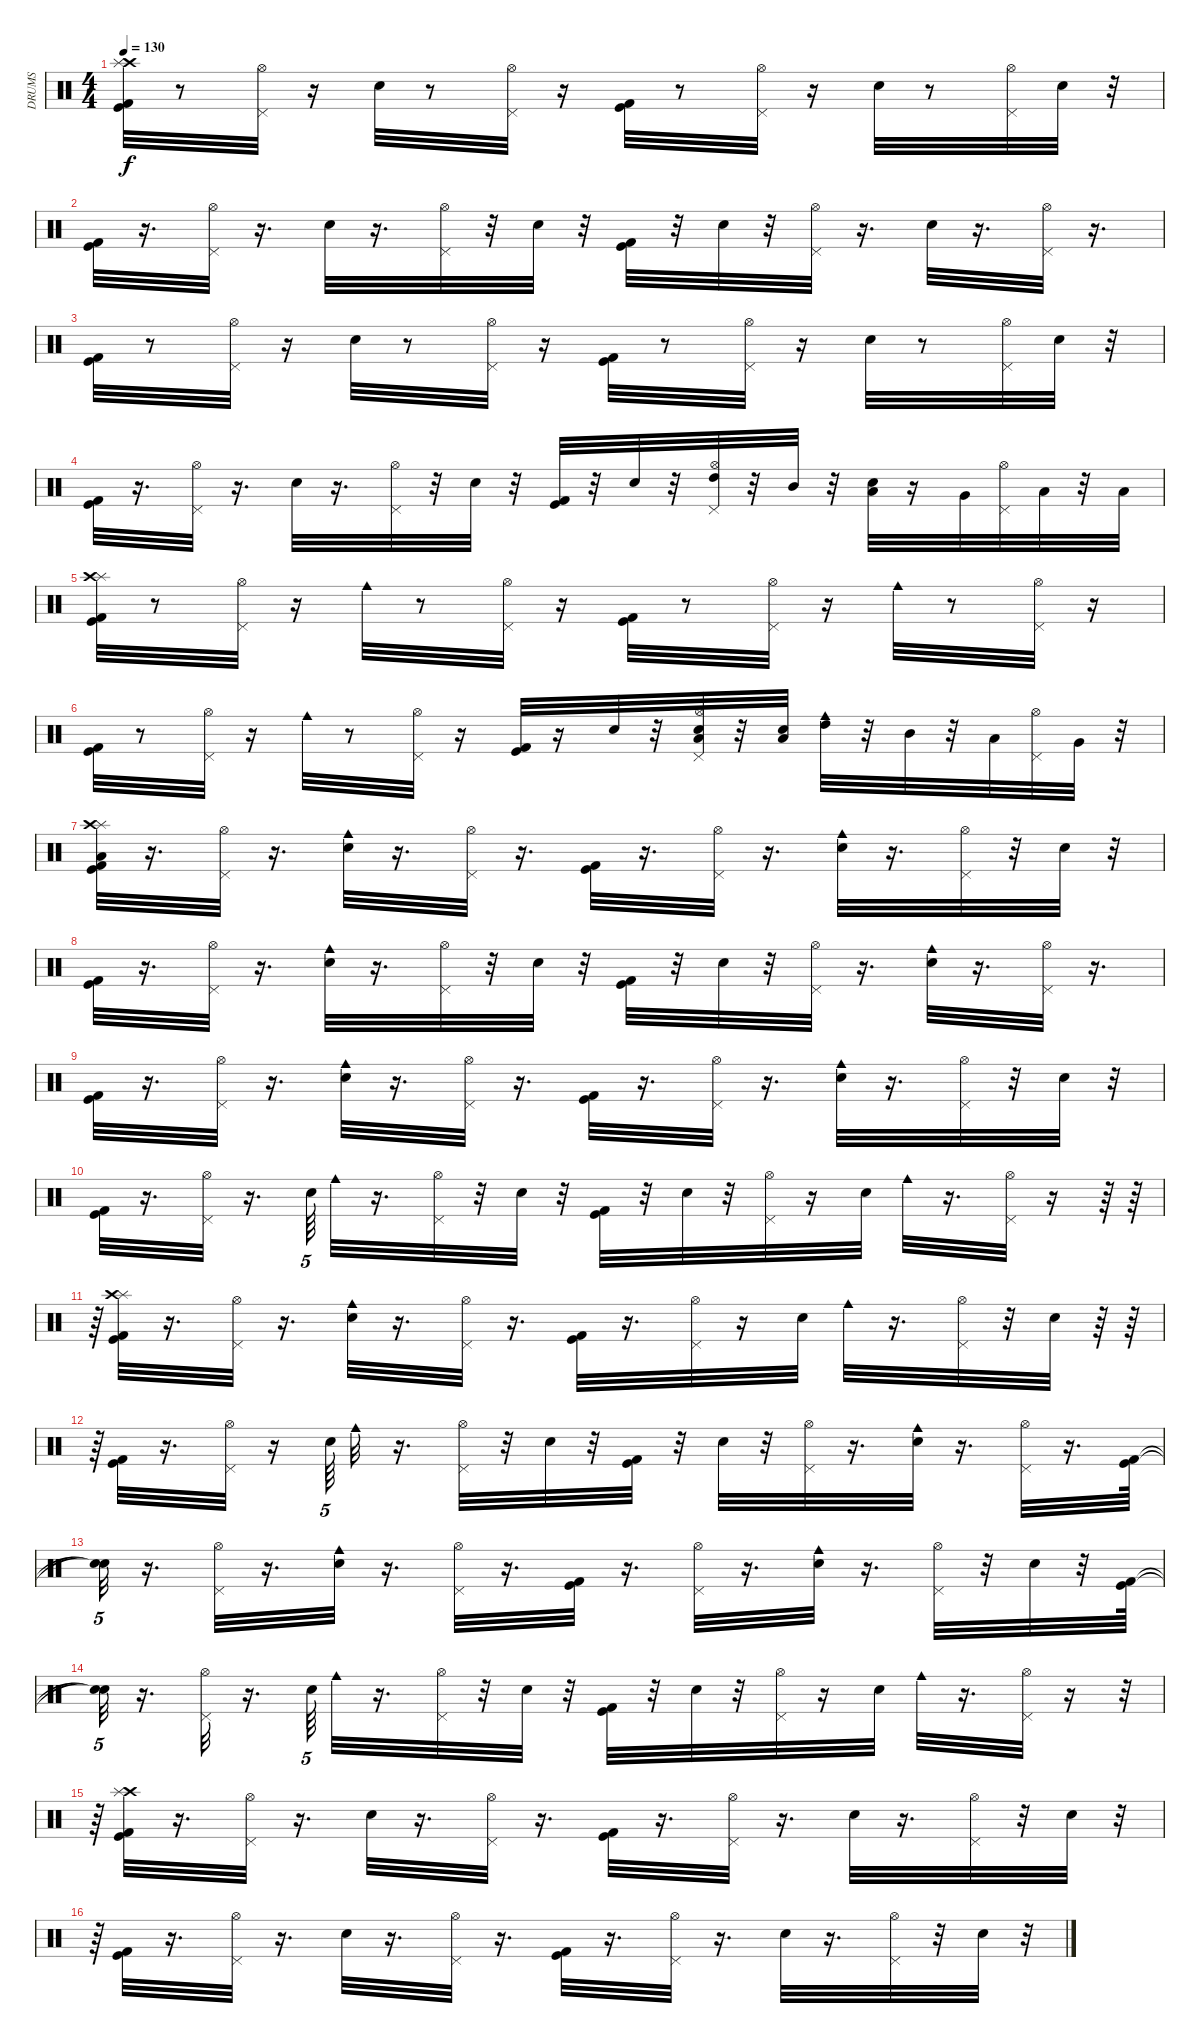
\track ("DRUMS" "DRUMS") {instrument percussion}
\staff {score}
\articulation defaults
\ts (4 4)
\tempo 130
\clef neutral
\ks c
("Crash high (hit)" "Kick (hit)" "Kick (hit) 2" "Splash (hit)").32{dy f} r.8 ("Pedal Hi-Hat (hit)" "Hi-Hat (open)").32 r.16 "Electric Snare (hit)".32 r.8 ("Pedal Hi-Hat (hit)" "Hi-Hat (open)").32 r.16 ("Kick (hit) 2" "Kick (hit)").32 r.8 ("Pedal Hi-Hat (hit)" "Hi-Hat (open)").32 r.16 "Electric Snare (hit)".32 r.8 ("Pedal Hi-Hat (hit)" "Hi-Hat (open)").32 "Electric Snare (hit)".32 r.32 |
("Kick (hit)" "Kick (hit) 2").32 r.16{d} ("Pedal Hi-Hat (hit)" "Hi-Hat (open)").32 r.16{d} "Electric Snare (hit)".32 r.16{d} ("Pedal Hi-Hat (hit)" "Hi-Hat (open)").32 r.32 "Electric Snare (hit)".32 r.32 ("Kick (hit) 2" "Kick (hit)").32 r.32 "Electric Snare (hit)".32 r.32 ("Pedal Hi-Hat (hit)" "Hi-Hat (open)").32 r.16{d} "Electric Snare (hit)".32 r.16{d} ("Pedal Hi-Hat (hit)" "Hi-Hat (open)").32 r.16{d} |
("Kick (hit)" "Kick (hit) 2").32 r.8 ("Pedal Hi-Hat (hit)" "Hi-Hat (open)").32 r.16 "Electric Snare (hit)".32 r.8 ("Pedal Hi-Hat (hit)" "Hi-Hat (open)").32 r.16 ("Kick (hit) 2" "Kick (hit)").32 r.8 ("Pedal Hi-Hat (hit)" "Hi-Hat (open)").32 r.16 "Electric Snare (hit)".32 r.8 ("Pedal Hi-Hat (hit)" "Hi-Hat (open)").32 "Electric Snare (hit)".32 r.32 |
("Kick (hit)" "Kick (hit) 2").32 r.16{d} ("Pedal Hi-Hat (hit)" "Hi-Hat (open)").32 r.16{d} "Electric Snare (hit)".32 r.16{d} ("Pedal Hi-Hat (hit)" "Hi-Hat (open)").32 r.32 "Electric Snare (hit)".32 r.32 ("Kick (hit) 2" "Kick (hit)").32 r.32 "Electric Snare (hit)".32 r.32 ("Pedal Hi-Hat (hit)" "Hi-Hat (open)" "High Tom (hit)").32 r.32 "Mid Tom (hit)".32 r.32 ("Electric Snare (hit)" "Low Tom (hit)").32 r.16 "Very Low Tom (hit)".32 ("Pedal Hi-Hat (hit)" "Hi-Hat (open)").32 "Low Floor Tom (hit)".32 r.32 "Low Floor Tom (hit)".32 |
("Splash (hit)" "Kick (hit)" "Kick (hit) 2" "Crash high (hit)").32 r.8 ("Pedal Hi-Hat (hit)" "Hi-Hat (open)").32 r.16 "Cowbell medium (hit)".32 r.8 ("Pedal Hi-Hat (hit)" "Hi-Hat (open)").32 r.16 ("Kick (hit) 2" "Kick (hit)").32 r.8 ("Pedal Hi-Hat (hit)" "Hi-Hat (open)").32 r.16 "Cowbell medium (hit)".32 r.8 ("Pedal Hi-Hat (hit)" "Hi-Hat (open)").32 r.16 |
("Kick (hit)" "Kick (hit) 2").32 r.8 ("Pedal Hi-Hat (hit)" "Hi-Hat (open)").32 r.16 "Cowbell medium (hit)".32 r.8 ("Pedal Hi-Hat (hit)" "Hi-Hat (open)").32 r.16 ("Kick (hit) 2" "Kick (hit)").32 r.16 "Electric Snare (hit)".32 r.32 ("Pedal Hi-Hat (hit)" "Hi-Hat (open)" "Low Floor Tom (hit)" "Electric Snare (hit)").32 r.32 ("Electric Snare (hit)" "Low Floor Tom (hit)").32 ("Cowbell medium (hit)" "High Tom (hit)").32 r.32 "Mid Tom (hit)".32 r.32 "Low Tom (hit)".32 ("Pedal Hi-Hat (hit)" "Hi-Hat (open)").32 "Very Low Tom (hit)".32 r.32 |
("Low Floor Tom (hit)" "Kick (hit)" "Kick (hit) 2" "Splash (hit)" "Crash high (hit)").32 r.16{d} ("Pedal Hi-Hat (hit)" "Hi-Hat (open)").32 r.16{d} ("Electric Snare (hit)" "Cowbell medium (hit)").32 r.16{d} ("Pedal Hi-Hat (hit)" "Hi-Hat (open)").32 r.16{d} ("Kick (hit) 2" "Kick (hit)").32 r.16{d} ("Pedal Hi-Hat (hit)" "Hi-Hat (open)").32 r.16{d} ("Electric Snare (hit)" "Cowbell medium (hit)").32 r.16{d} ("Pedal Hi-Hat (hit)" "Hi-Hat (open)").32 r.32 "Electric Snare (hit)".32 r.32 |
("Kick (hit)" "Kick (hit) 2").32 r.16{d} ("Pedal Hi-Hat (hit)" "Hi-Hat (open)").32 r.16{d} ("Electric Snare (hit)" "Cowbell medium (hit)").32 r.16{d} ("Pedal Hi-Hat (hit)" "Hi-Hat (open)").32 r.32 "Electric Snare (hit)".32 r.32 ("Kick (hit) 2" "Kick (hit)").32 r.32 "Electric Snare (hit)".32 r.32 ("Pedal Hi-Hat (hit)" "Hi-Hat (open)").32 r.16{d} ("Electric Snare (hit)" "Cowbell medium (hit)").32 r.16{d} ("Pedal Hi-Hat (hit)" "Hi-Hat (open)").32 r.16{d} |
("Kick (hit)" "Kick (hit) 2").32 r.16{d} ("Pedal Hi-Hat (hit)" "Hi-Hat (open)").32 r.16{d} ("Electric Snare (hit)" "Cowbell medium (hit)").32 r.16{d} ("Pedal Hi-Hat (hit)" "Hi-Hat (open)").32 r.16{d} ("Kick (hit) 2" "Kick (hit)").32 r.16{d} ("Pedal Hi-Hat (hit)" "Hi-Hat (open)").32 r.16{d} ("Electric Snare (hit)" "Cowbell medium (hit)").32 r.16{d} ("Pedal Hi-Hat (hit)" "Hi-Hat (open)").32 r.32 "Electric Snare (hit)".32 r.32 |
("Kick (hit)" "Kick (hit) 2").32 r.16{d} ("Pedal Hi-Hat (hit)" "Hi-Hat (open)").32 r.16{d} "Electric Snare (hit)".64{tu (5 4)} "Cowbell medium (hit)".32 r.16{d} ("Pedal Hi-Hat (hit)" "Hi-Hat (open)").32 r.32 "Electric Snare (hit)".32 r.32 ("Kick (hit) 2" "Kick (hit)").32 r.32 "Electric Snare (hit)".32 r.32 ("Pedal Hi-Hat (hit)" "Hi-Hat (open)").32 r.16 "Electric Snare (hit)".32 "Cowbell medium (hit)".32 r.16{d} ("Pedal Hi-Hat (hit)" "Hi-Hat (open)").32 r.16 r.64 r.64 |
r.64{tu (5 4)} ("Splash (hit)" "Kick (hit)" "Kick (hit) 2" "Crash high (hit)").32 r.16{d} ("Pedal Hi-Hat (hit)" "Hi-Hat (open)").32 r.16{d} ("Electric Snare (hit)" "Cowbell medium (hit)").32 r.16{d} ("Pedal Hi-Hat (hit)" "Hi-Hat (open)").32 r.16{d} ("Kick (hit) 2" "Kick (hit)").32 r.16{d} ("Pedal Hi-Hat (hit)" "Hi-Hat (open)").32 r.16 "Electric Snare (hit)".32 "Cowbell medium (hit)".32 r.16{d} ("Pedal Hi-Hat (hit)" "Hi-Hat (open)").32 r.32 "Electric Snare (hit)".32 r.64 r.64 |
r.64{tu (5 4)} ("Kick (hit)" "Kick (hit) 2").32 r.16{d} ("Pedal Hi-Hat (hit)" "Hi-Hat (open)").32 r.16 "Electric Snare (hit)".64{tu (5 4)} "Cowbell medium (hit)".32 r.16{d} ("Pedal Hi-Hat (hit)" "Hi-Hat (open)").32 r.32 "Electric Snare (hit)".32 r.32 ("Kick (hit) 2" "Kick (hit)").32 r.32 "Electric Snare (hit)".32 r.32 ("Pedal Hi-Hat (hit)" "Hi-Hat (open)").32 r.16{d} ("Electric Snare (hit)" "Cowbell medium (hit)").32 r.16{d} ("Pedal Hi-Hat (hit)" "Hi-Hat (open)").32 r.16{d} ("Kick (hit)" "Kick (hit) 2").64 |
("Snare (hit)"{t} "Snare (hit)"{t}).32{tu (5 4)} r.16{d} ("Pedal Hi-Hat (hit)" "Hi-Hat (open)").32 r.16{d} ("Electric Snare (hit)" "Cowbell medium (hit)").32 r.16{d} ("Pedal Hi-Hat (hit)" "Hi-Hat (open)").32 r.16{d} ("Kick (hit) 2" "Kick (hit)").32 r.16{d} ("Pedal Hi-Hat (hit)" "Hi-Hat (open)").32 r.16{d} ("Electric Snare (hit)" "Cowbell medium (hit)").32 r.16{d} ("Pedal Hi-Hat (hit)" "Hi-Hat (open)").32 r.32 "Electric Snare (hit)".32 r.32 ("Kick (hit)" "Kick (hit) 2").64 |
("Snare (hit)"{t} "Snare (hit)"{t}).32{tu (5 4)} r.16{d} ("Pedal Hi-Hat (hit)" "Hi-Hat (open)").32 r.16{d} "Electric Snare (hit)".64{tu (5 4)} "Cowbell medium (hit)".32 r.16{d} ("Pedal Hi-Hat (hit)" "Hi-Hat (open)").32 r.32 "Electric Snare (hit)".32 r.32 ("Kick (hit) 2" "Kick (hit)").32 r.32 "Electric Snare (hit)".32 r.32 ("Pedal Hi-Hat (hit)" "Hi-Hat (open)").32 r.16 "Electric Snare (hit)".32 "Cowbell medium (hit)".32 r.16{d} ("Pedal Hi-Hat (hit)" "Hi-Hat (open)").32 r.16 r.32{tu (5 4)} |
r.64 ("Crash high (hit)" "Kick (hit)" "Kick (hit) 2" "Splash (hit)").32 r.16{d} ("Pedal Hi-Hat (hit)" "Hi-Hat (open)").32 r.16{d} "Electric Snare (hit)".32 r.16{d} ("Pedal Hi-Hat (hit)" "Hi-Hat (open)").32 r.16{d} ("Kick (hit) 2" "Kick (hit)").32 r.16{d} ("Pedal Hi-Hat (hit)" "Hi-Hat (open)").32 r.16{d} "Electric Snare (hit)".32 r.16{d} ("Pedal Hi-Hat (hit)" "Hi-Hat (open)").32 r.32 "Electric Snare (hit)".32 r.32{tu (5 4)} |
r.64 ("Kick (hit)" "Kick (hit) 2").32 r.16{d} ("Pedal Hi-Hat (hit)" "Hi-Hat (open)").32 r.16{d} "Electric Snare (hit)".32 r.16{d} ("Pedal Hi-Hat (hit)" "Hi-Hat (open)").32 r.16{d} ("Kick (hit) 2" "Kick (hit)").32 r.16{d} ("Pedal Hi-Hat (hit)" "Hi-Hat (open)").32 r.16{d} "Electric Snare (hit)".32 r.16{d} ("Pedal Hi-Hat (hit)" "Hi-Hat (open)").32 r.32 "Electric Snare (hit)".32 r.32{tu (5 4)}
